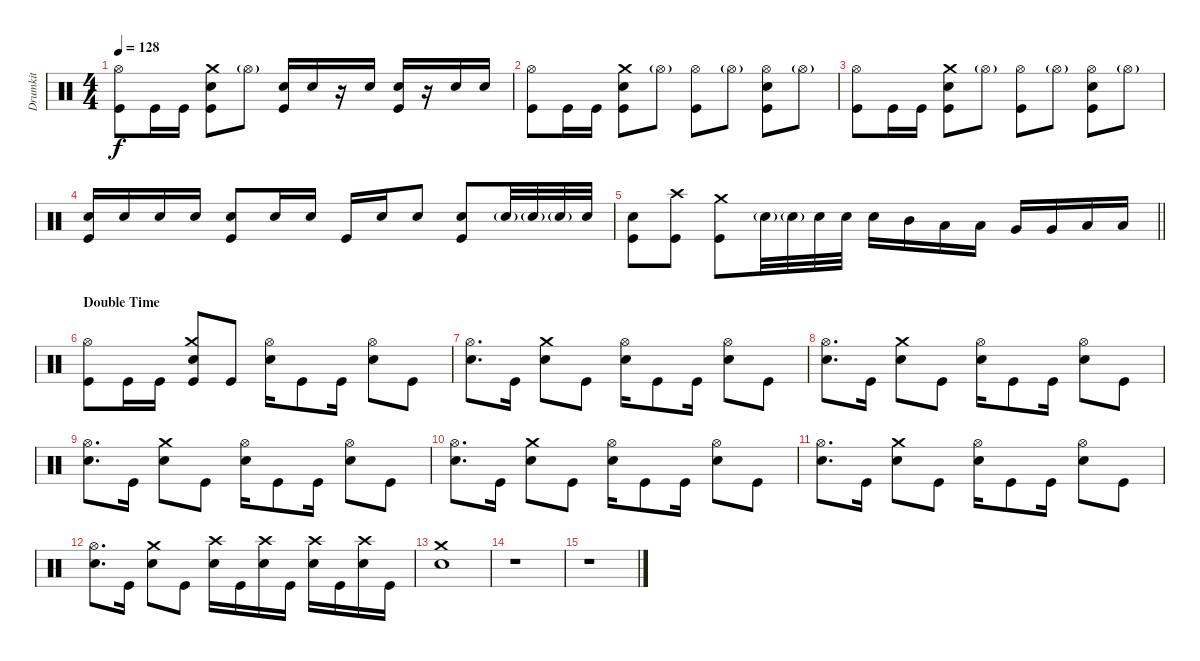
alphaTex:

\track ("Drumkit" "Drumkit") {instrument percussion}
\staff
\articulation defaults
\ts (4 4)
\tempo 128
\clef neutral
\ks c
("Hi-Hat (open)" "Kick (hit)").8{dy f} "Kick (hit)".16 "Kick (hit)".16 ("Crash medium (hit)" "Kick (hit)" "Snare (hit) 2").8 "Hi-Hat (open)"{g}.8 ("Snare (hit) 2" "Kick (hit)").16 "Snare (hit) 2".16 r.16 "Snare (hit) 2".16 ("Snare (hit) 2" "Kick (hit)").16 r.16 "Snare (hit) 2".16 "Snare (hit) 2".16 |
("Hi-Hat (open)" "Kick (hit)").8 "Kick (hit)".16 "Kick (hit)".16 ("Crash medium (hit)" "Kick (hit)" "Snare (hit) 2").8 "Hi-Hat (open)"{g}.8 ("Hi-Hat (open)" "Kick (hit)").8 "Hi-Hat (open)"{g}.8 ("Hi-Hat (open)" "Kick (hit)" "Snare (hit) 2").8 "Hi-Hat (open)"{g}.8 |
("Hi-Hat (open)" "Kick (hit)").8 "Kick (hit)".16 "Kick (hit)".16 ("Crash medium (hit)" "Kick (hit)" "Snare (hit) 2").8 "Hi-Hat (open)"{g}.8 ("Hi-Hat (open)" "Kick (hit)").8 "Hi-Hat (open)"{g}.8 ("Hi-Hat (open)" "Kick (hit)" "Snare (hit) 2").8 "Hi-Hat (open)"{g}.8 |
("Snare (hit) 2" "Kick (hit)").16 "Snare (hit) 2".16 "Snare (hit) 2".16 "Snare (hit) 2".16 ("Snare (hit) 2" "Kick (hit)").8 "Snare (hit) 2".16 "Snare (hit) 2".16 "Kick (hit)".16 "Snare (hit) 2".16 "Snare (hit) 2".8 ("Snare (hit) 2" "Kick (hit)").8 "Snare (hit) 2"{g}.32 "Snare (hit) 2"{g}.32 "Snare (hit) 2"{g}.32 "Snare (hit) 2".32 |
\barLineRight lightlight
("Snare (hit) 2" "Kick (hit)").8 ("Kick (hit)" "Crash high (hit)").8 ("Kick (hit)" "Crash medium (hit)").8 "Snare (hit) 2"{g}.32 "Snare (hit) 2"{g}.32 "Snare (hit) 2".32 "Snare (hit) 2".32 "Snare (hit) 2".16 "Mid Tom (hit)".16 "Low Tom (hit)".16 "Low Tom (hit)".16 "Very Low Tom (hit)".16 "Very Low Tom (hit)".16 "Low Floor Tom (hit)".16 "Low Floor Tom (hit)".16 |
\section ("" "Double Time")
("Hi-Hat (open)" "Kick (hit)").8 "Kick (hit)".16 "Kick (hit)".16 ("Crash medium (hit)" "Kick (hit)" "Snare (hit) 2").8 "Kick (hit)".8 ("Hi-Hat (open)" "Snare (hit) 2").16 "Kick (hit)".8 "Kick (hit)".16 ("Hi-Hat (open)" "Snare (hit) 2").8 "Kick (hit)".8 |
("Hi-Hat (open)" "Snare (hit) 2").8{d} "Kick (hit)".16 ("Crash medium (hit)" "Snare (hit) 2").8 "Kick (hit)".8 ("Hi-Hat (open)" "Snare (hit) 2").16 "Kick (hit)".8 "Kick (hit)".16 ("Hi-Hat (open)" "Snare (hit) 2").8 "Kick (hit)".8 |
("Hi-Hat (open)" "Snare (hit) 2").8{d} "Kick (hit)".16 ("Crash medium (hit)" "Snare (hit) 2").8 "Kick (hit)".8 ("Hi-Hat (open)" "Snare (hit) 2").16 "Kick (hit)".8 "Kick (hit)".16 ("Hi-Hat (open)" "Snare (hit) 2").8 "Kick (hit)".8 |
("Hi-Hat (open)" "Snare (hit) 2").8{d} "Kick (hit)".16 ("Crash medium (hit)" "Snare (hit) 2").8 "Kick (hit)".8 ("Hi-Hat (open)" "Snare (hit) 2").16 "Kick (hit)".8 "Kick (hit)".16 ("Hi-Hat (open)" "Snare (hit) 2").8 "Kick (hit)".8 |
("Hi-Hat (open)" "Snare (hit) 2").8{d} "Kick (hit)".16 ("Crash medium (hit)" "Snare (hit) 2").8 "Kick (hit)".8 ("Hi-Hat (open)" "Snare (hit) 2").16 "Kick (hit)".8 "Kick (hit)".16 ("Hi-Hat (open)" "Snare (hit) 2").8 "Kick (hit)".8 |
("Hi-Hat (open)" "Snare (hit) 2").8{d} "Kick (hit)".16 ("Crash medium (hit)" "Snare (hit) 2").8 "Kick (hit)".8 ("Hi-Hat (open)" "Snare (hit) 2").16 "Kick (hit)".8 "Kick (hit)".16 ("Hi-Hat (open)" "Snare (hit) 2").8 "Kick (hit)".8 |
("Hi-Hat (open)" "Snare (hit) 2").8{d} "Kick (hit)".16 ("Crash medium (hit)" "Snare (hit) 2").8 "Kick (hit)".8 ("Crash high (hit)" "Snare (hit) 2").16 "Kick (hit)".16 ("Crash high (hit)" "Snare (hit) 2").16 "Kick (hit)".16 ("Crash high (hit)" "Snare (hit) 2").16 "Kick (hit)".16 ("Crash high (hit)" "Snare (hit) 2").16 "Kick (hit)".16 |
("Crash medium (hit)" "Snare (hit) 2").1 |
r.1 |
r.1
